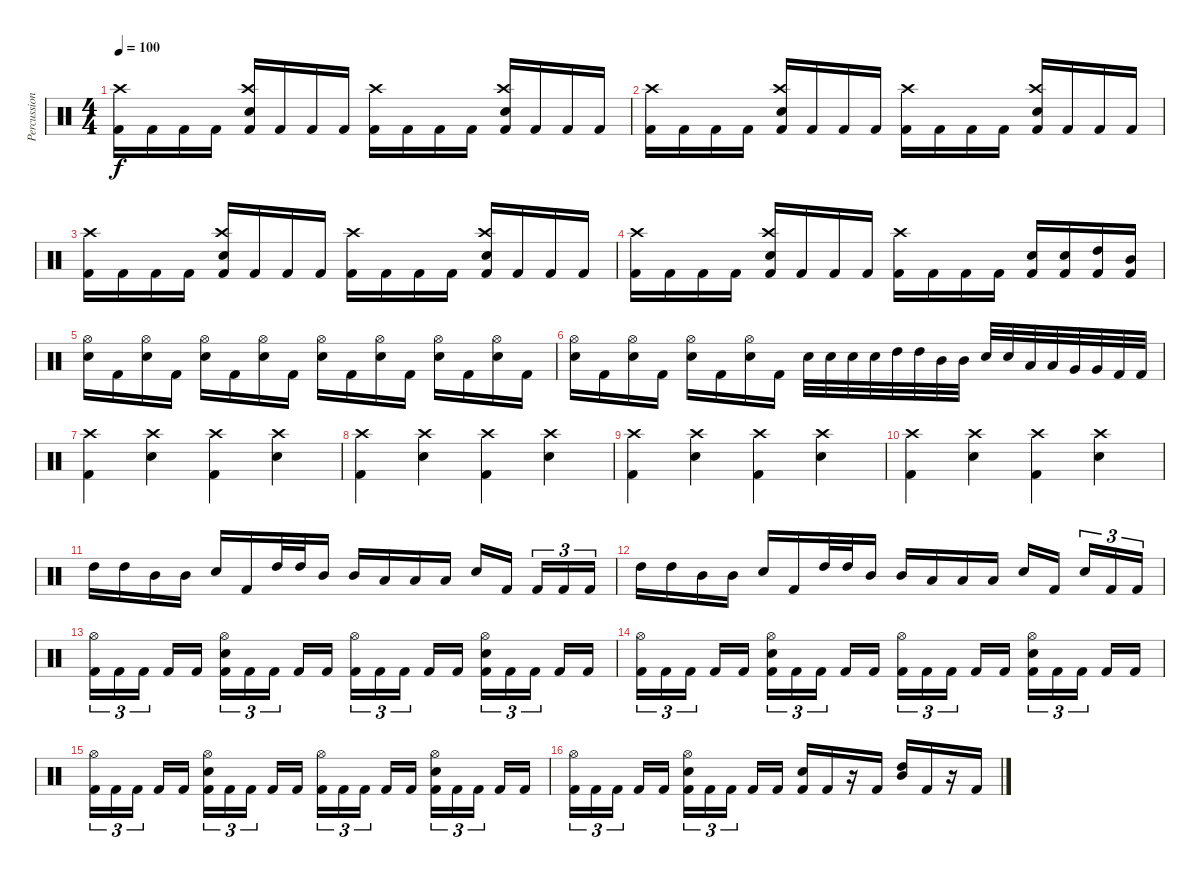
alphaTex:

\track ("Percussion" "Percussion") {instrument percussion}
\staff {score}
\articulation defaults
\ts (4 4)
\tempo 100
\clef neutral
\ks c
("Kick (hit) 2" "Crash high (hit)").16{dy f} "Kick (hit) 2".16 "Kick (hit) 2".16 "Kick (hit) 2".16 ("Kick (hit) 2" "Crash high (hit)" "Electric Snare (hit)").16 "Kick (hit) 2".16 "Kick (hit) 2".16 "Kick (hit) 2".16 ("Kick (hit) 2" "Crash high (hit)").16 "Kick (hit) 2".16 "Kick (hit) 2".16 "Kick (hit) 2".16 ("Kick (hit) 2" "Crash high (hit)" "Electric Snare (hit)").16 "Kick (hit) 2".16 "Kick (hit) 2".16 "Kick (hit) 2".16 |
("Kick (hit) 2" "Crash high (hit)").16 "Kick (hit) 2".16 "Kick (hit) 2".16 "Kick (hit) 2".16 ("Kick (hit) 2" "Crash high (hit)" "Electric Snare (hit)").16 "Kick (hit) 2".16 "Kick (hit) 2".16 "Kick (hit) 2".16 ("Kick (hit) 2" "Crash high (hit)").16 "Kick (hit) 2".16 "Kick (hit) 2".16 "Kick (hit) 2".16 ("Kick (hit) 2" "Crash high (hit)" "Electric Snare (hit)").16 "Kick (hit) 2".16 "Kick (hit) 2".16 "Kick (hit) 2".16 |
("Kick (hit) 2" "Crash high (hit)").16 "Kick (hit) 2".16 "Kick (hit) 2".16 "Kick (hit) 2".16 ("Kick (hit) 2" "Crash high (hit)" "Electric Snare (hit)").16 "Kick (hit) 2".16 "Kick (hit) 2".16 "Kick (hit) 2".16 ("Kick (hit) 2" "Crash high (hit)").16 "Kick (hit) 2".16 "Kick (hit) 2".16 "Kick (hit) 2".16 ("Kick (hit) 2" "Crash high (hit)" "Electric Snare (hit)").16 "Kick (hit) 2".16 "Kick (hit) 2".16 "Kick (hit) 2".16 |
("Kick (hit) 2" "Crash high (hit)").16 "Kick (hit) 2".16 "Kick (hit) 2".16 "Kick (hit) 2".16 ("Kick (hit) 2" "Crash high (hit)" "Electric Snare (hit)").16 "Kick (hit) 2".16 "Kick (hit) 2".16 "Kick (hit) 2".16 ("Kick (hit) 2" "Crash high (hit)").16 "Kick (hit) 2".16 "Kick (hit) 2".16 "Kick (hit) 2".16 ("Kick (hit) 2" "Electric Snare (hit)").16 ("Kick (hit) 2" "Electric Snare (hit)").16 ("Kick (hit) 2" "High Tom (hit)").16 ("Kick (hit) 2" "Mid Tom (hit)").16 |
("Electric Snare (hit)" "Hi-Hat (open)").16 "Kick (hit) 2".16 ("Electric Snare (hit)" "Hi-Hat (open)").16 "Kick (hit) 2".16 ("Electric Snare (hit)" "Hi-Hat (open)").16 "Kick (hit) 2".16 ("Electric Snare (hit)" "Hi-Hat (open)").16 "Kick (hit) 2".16 ("Electric Snare (hit)" "Hi-Hat (open)").16 "Kick (hit) 2".16 ("Electric Snare (hit)" "Hi-Hat (open)").16 "Kick (hit) 2".16 ("Electric Snare (hit)" "Hi-Hat (open)").16 "Kick (hit) 2".16 ("Electric Snare (hit)" "Hi-Hat (open)").16 "Kick (hit) 2".16 |
("Electric Snare (hit)" "Hi-Hat (open)").16 "Kick (hit) 2".16 ("Electric Snare (hit)" "Hi-Hat (open)").16 "Kick (hit) 2".16 ("Electric Snare (hit)" "Hi-Hat (open)").16 "Kick (hit) 2".16 ("Electric Snare (hit)" "Hi-Hat (open)").16 "Kick (hit) 2".16 "Electric Snare (hit)".32 "Electric Snare (hit)".32 "Electric Snare (hit)".32 "Electric Snare (hit)".32 "High Tom (hit)".32 "High Tom (hit)".32 "Mid Tom (hit)".32 "Mid Tom (hit)".32 "Electric Snare (hit)".32 "Electric Snare (hit)".32 "Low Tom (hit)".32 "Low Tom (hit)".32 "Very Low Tom (hit)".32 "Very Low Tom (hit)".32 "Kick (hit) 2".32 "Kick (hit) 2".32 |
("Crash high (hit)" "Kick (hit) 2").4 ("Crash high (hit)" "Electric Snare (hit)").4 ("Crash high (hit)" "Kick (hit) 2").4 ("Crash high (hit)" "Electric Snare (hit)").4 |
("Crash high (hit)" "Kick (hit) 2").4 ("Crash high (hit)" "Electric Snare (hit)").4 ("Crash high (hit)" "Kick (hit) 2").4 ("Crash high (hit)" "Electric Snare (hit)").4 |
("Crash high (hit)" "Kick (hit) 2").4 ("Crash high (hit)" "Electric Snare (hit)").4 ("Crash high (hit)" "Kick (hit) 2").4 ("Crash high (hit)" "Electric Snare (hit)").4 |
("Crash high (hit)" "Kick (hit) 2").4 ("Crash high (hit)" "Electric Snare (hit)").4 ("Crash high (hit)" "Kick (hit) 2").4 ("Crash high (hit)" "Electric Snare (hit)").4 |
"High Tom (hit)".16 "High Tom (hit)".16 "Mid Tom (hit)".16 "Mid Tom (hit)".16 "Electric Snare (hit)".16 "Kick (hit) 2".16 "High Tom (hit)".32 "High Tom (hit)".32 "Mid Tom (hit)".16 "Mid Tom (hit)".16 "Low Tom (hit)".16 "Low Tom (hit)".16 "Low Tom (hit)".16 "Electric Snare (hit)".16 "Kick (hit) 2".16{beam splitsecondary} "Kick (hit) 2".16{tu (3 2)} "Kick (hit) 2".16{tu (3 2)} "Kick (hit) 2".16{tu (3 2)} |
"High Tom (hit)".16 "High Tom (hit)".16 "Mid Tom (hit)".16 "Mid Tom (hit)".16 "Electric Snare (hit)".16 "Kick (hit) 2".16 "High Tom (hit)".32 "High Tom (hit)".32 "Mid Tom (hit)".16 "Mid Tom (hit)".16 "Low Tom (hit)".16 "Low Tom (hit)".16 "Low Tom (hit)".16 "Electric Snare (hit)".16 "Kick (hit) 2".16{beam splitsecondary} "Electric Snare (hit)".16{tu (3 2)} "Kick (hit) 2".16{tu (3 2)} "Kick (hit) 2".16{tu (3 2)} |
("Kick (hit) 2" "Hi-Hat (open)").16{tu (3 2)} "Kick (hit) 2".16{tu (3 2)} "Kick (hit) 2".16{tu (3 2) beam splitsecondary} "Kick (hit) 2".16 "Kick (hit) 2".16 ("Kick (hit) 2" "Hi-Hat (open)" "Electric Snare (hit)").16{tu (3 2)} "Kick (hit) 2".16{tu (3 2)} "Kick (hit) 2".16{tu (3 2) beam splitsecondary} "Kick (hit) 2".16 "Kick (hit) 2".16 ("Kick (hit) 2" "Hi-Hat (open)").16{tu (3 2)} "Kick (hit) 2".16{tu (3 2)} "Kick (hit) 2".16{tu (3 2) beam splitsecondary} "Kick (hit) 2".16 "Kick (hit) 2".16 ("Kick (hit) 2" "Hi-Hat (open)" "Electric Snare (hit)").16{tu (3 2)} "Kick (hit) 2".16{tu (3 2)} "Kick (hit) 2".16{tu (3 2) beam splitsecondary} "Kick (hit) 2".16 "Kick (hit) 2".16 |
("Kick (hit) 2" "Hi-Hat (open)").16{tu (3 2)} "Kick (hit) 2".16{tu (3 2)} "Kick (hit) 2".16{tu (3 2) beam splitsecondary} "Kick (hit) 2".16 "Kick (hit) 2".16 ("Kick (hit) 2" "Hi-Hat (open)" "Electric Snare (hit)").16{tu (3 2)} "Kick (hit) 2".16{tu (3 2)} "Kick (hit) 2".16{tu (3 2) beam splitsecondary} "Kick (hit) 2".16 "Kick (hit) 2".16 ("Kick (hit) 2" "Hi-Hat (open)").16{tu (3 2)} "Kick (hit) 2".16{tu (3 2)} "Kick (hit) 2".16{tu (3 2) beam splitsecondary} "Kick (hit) 2".16 "Kick (hit) 2".16 ("Kick (hit) 2" "Hi-Hat (open)" "Electric Snare (hit)").16{tu (3 2)} "Kick (hit) 2".16{tu (3 2)} "Kick (hit) 2".16{tu (3 2) beam splitsecondary} "Kick (hit) 2".16 "Kick (hit) 2".16 |
("Kick (hit) 2" "Hi-Hat (open)").16{tu (3 2)} "Kick (hit) 2".16{tu (3 2)} "Kick (hit) 2".16{tu (3 2) beam splitsecondary} "Kick (hit) 2".16 "Kick (hit) 2".16 ("Kick (hit) 2" "Hi-Hat (open)" "Electric Snare (hit)").16{tu (3 2)} "Kick (hit) 2".16{tu (3 2)} "Kick (hit) 2".16{tu (3 2) beam splitsecondary} "Kick (hit) 2".16 "Kick (hit) 2".16 ("Kick (hit) 2" "Hi-Hat (open)").16{tu (3 2)} "Kick (hit) 2".16{tu (3 2)} "Kick (hit) 2".16{tu (3 2) beam splitsecondary} "Kick (hit) 2".16 "Kick (hit) 2".16 ("Kick (hit) 2" "Hi-Hat (open)" "Electric Snare (hit)").16{tu (3 2)} "Kick (hit) 2".16{tu (3 2)} "Kick (hit) 2".16{tu (3 2) beam splitsecondary} "Kick (hit) 2".16 "Kick (hit) 2".16 |
("Kick (hit) 2" "Hi-Hat (open)").16{tu (3 2)} "Kick (hit) 2".16{tu (3 2)} "Kick (hit) 2".16{tu (3 2) beam splitsecondary} "Kick (hit) 2".16 "Kick (hit) 2".16 ("Kick (hit) 2" "Hi-Hat (open)" "Electric Snare (hit)").16{tu (3 2)} "Kick (hit) 2".16{tu (3 2)} "Kick (hit) 2".16{tu (3 2) beam splitsecondary} "Kick (hit) 2".16 "Kick (hit) 2".16 ("Electric Snare (hit)" "Kick (hit) 2").16 "Kick (hit) 2".16 r.16 "Kick (hit) 2".16 ("High Tom (hit)" "Mid Tom (hit)").16 "Kick (hit) 2".16 r.16 "Kick (hit) 2".16
